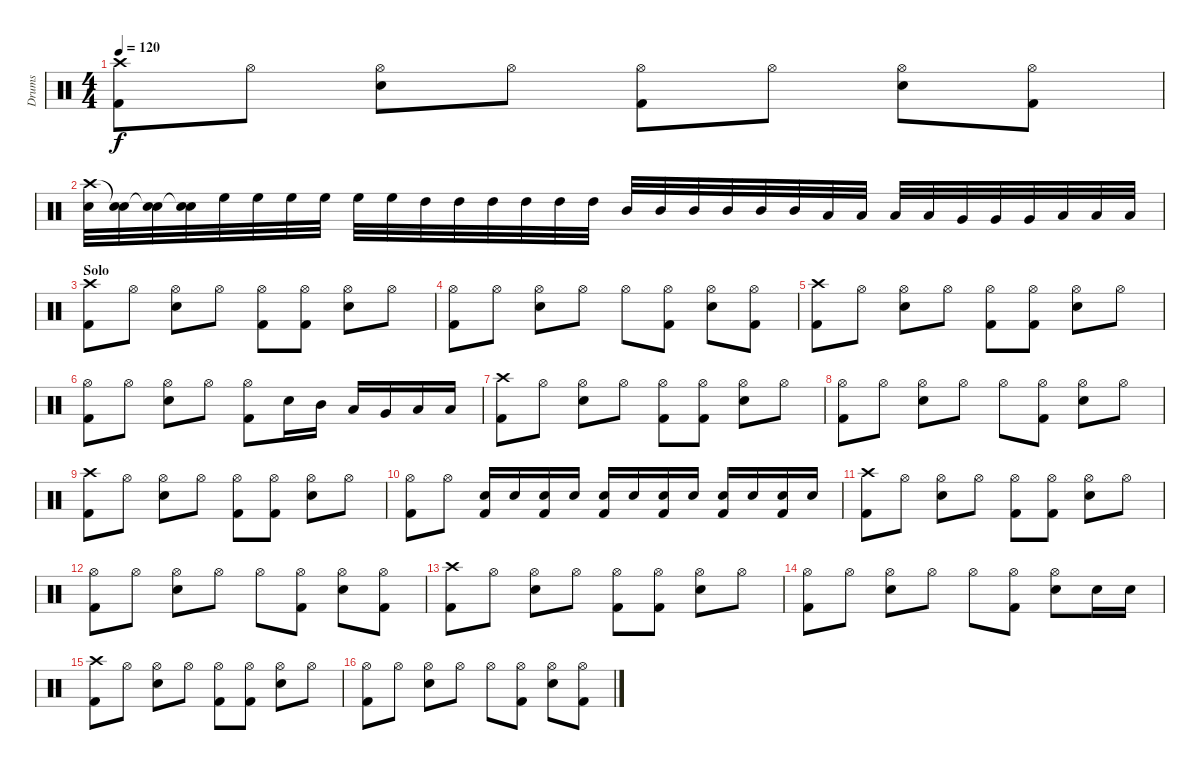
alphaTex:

\track ("Drums" "Drums") {instrument percussion}
\staff {score}
\articulation defaults
\ts (4 4)
\tempo 120
\clef neutral
\ks c
("Crash high (hit)" "Kick (hit) 2").8{dy f} "Hi-Hat (open)".8 ("Hi-Hat (open)" "Snare (hit) 2").8 "Hi-Hat (open)".8 ("Hi-Hat (open)" "Kick (hit) 2").8 "Hi-Hat (open)".8 ("Hi-Hat (open)" "Snare (hit) 2").8 ("Hi-Hat (open)" "Kick (hit) 2").8 |
("Crash high (hit)" "Snare (hit) 2").32 ("Snare (hit)"{t} "Snare (hit) 2").32 ("Snare (hit)"{t} "Snare (hit) 2").32 ("Snare (hit)"{t} "Snare (hit) 2").32 "High Floor Tom (hit)".32 "High Floor Tom (hit)".32 "High Floor Tom (hit)".32 "High Floor Tom (hit)".32 "High Floor Tom (hit)".32 "High Floor Tom (hit)".32 "High Tom (hit)".32 "High Tom (hit)".32 "High Tom (hit)".32 "High Tom (hit)".32 "High Tom (hit)".32 "High Tom (hit)".32 "Mid Tom (hit)".32 "Mid Tom (hit)".32 "Mid Tom (hit)".32 "Mid Tom (hit)".32 "Mid Tom (hit)".32 "Mid Tom (hit)".32 "Low Tom (hit)".32 "Low Tom (hit)".32 "Low Tom (hit)".32 "Low Tom (hit)".32 "Very Low Tom (hit)".32 "Very Low Tom (hit)".32 "Very Low Tom (hit)".32 "Low Floor Tom (hit)".32 "Low Floor Tom (hit)".32 "Low Floor Tom (hit)".32 |
\section ("" "Solo")
("Crash high (hit)" "Kick (hit) 2").8 "Hi-Hat (open)".8 ("Hi-Hat (open)" "Snare (hit) 2").8 "Hi-Hat (open)".8 ("Hi-Hat (open)" "Kick (hit) 2").8 ("Hi-Hat (open)" "Kick (hit) 2").8 ("Hi-Hat (open)" "Snare (hit) 2").8 "Hi-Hat (open)".8 |
("Hi-Hat (open)" "Kick (hit) 2").8 "Hi-Hat (open)".8 ("Hi-Hat (open)" "Snare (hit) 2").8 "Hi-Hat (open)".8 "Hi-Hat (open)".8 ("Hi-Hat (open)" "Kick (hit) 2").8 ("Hi-Hat (open)" "Snare (hit) 2").8 ("Hi-Hat (open)" "Kick (hit) 2").8 |
("Crash high (hit)" "Kick (hit) 2").8 "Hi-Hat (open)".8 ("Hi-Hat (open)" "Snare (hit) 2").8 "Hi-Hat (open)".8 ("Hi-Hat (open)" "Kick (hit) 2").8 ("Hi-Hat (open)" "Kick (hit) 2").8 ("Hi-Hat (open)" "Snare (hit) 2").8 "Hi-Hat (open)".8 |
("Hi-Hat (open)" "Kick (hit) 2").8 "Hi-Hat (open)".8 ("Hi-Hat (open)" "Snare (hit) 2").8 "Hi-Hat (open)".8 ("Hi-Hat (open)" "Kick (hit) 2").8 "Snare (hit) 2".16 "Mid Tom (hit)".16 "Low Tom (hit)".16 "Very Low Tom (hit)".16 "Low Floor Tom (hit)".16 "Low Floor Tom (hit)".16 |
("Crash high (hit)" "Kick (hit) 2").8 "Hi-Hat (open)".8 ("Hi-Hat (open)" "Snare (hit) 2").8 "Hi-Hat (open)".8 ("Hi-Hat (open)" "Kick (hit) 2").8 ("Hi-Hat (open)" "Kick (hit) 2").8 ("Hi-Hat (open)" "Snare (hit) 2").8 "Hi-Hat (open)".8 |
("Hi-Hat (open)" "Kick (hit) 2").8 "Hi-Hat (open)".8 ("Hi-Hat (open)" "Snare (hit) 2").8 "Hi-Hat (open)".8 "Hi-Hat (open)".8 ("Hi-Hat (open)" "Kick (hit) 2").8 ("Hi-Hat (open)" "Snare (hit) 2").8 "Hi-Hat (open)".8 |
("Crash high (hit)" "Kick (hit) 2").8 "Hi-Hat (open)".8 ("Hi-Hat (open)" "Snare (hit) 2").8 "Hi-Hat (open)".8 ("Hi-Hat (open)" "Kick (hit) 2").8 ("Hi-Hat (open)" "Kick (hit) 2").8 ("Hi-Hat (open)" "Snare (hit) 2").8 "Hi-Hat (open)".8 |
("Hi-Hat (open)" "Kick (hit) 2").8 "Hi-Hat (open)".8 ("Snare (hit) 2" "Kick (hit) 2").16 "Snare (hit) 2".16 ("Snare (hit) 2" "Kick (hit) 2").16 "Snare (hit) 2".16 ("Snare (hit) 2" "Kick (hit) 2").16 "Snare (hit) 2".16 ("Snare (hit) 2" "Kick (hit) 2").16 "Snare (hit) 2".16 ("Snare (hit) 2" "Kick (hit) 2").16 "Snare (hit) 2".16 ("Snare (hit) 2" "Kick (hit) 2").16 "Snare (hit) 2".16 |
("Crash high (hit)" "Kick (hit) 2").8 "Hi-Hat (open)".8 ("Hi-Hat (open)" "Snare (hit) 2").8 "Hi-Hat (open)".8 ("Hi-Hat (open)" "Kick (hit) 2").8 ("Hi-Hat (open)" "Kick (hit) 2").8 ("Hi-Hat (open)" "Snare (hit) 2").8 "Hi-Hat (open)".8 |
("Hi-Hat (open)" "Kick (hit) 2").8 "Hi-Hat (open)".8 ("Hi-Hat (open)" "Snare (hit) 2").8 "Hi-Hat (open)".8 "Hi-Hat (open)".8 ("Hi-Hat (open)" "Kick (hit) 2").8 ("Hi-Hat (open)" "Snare (hit) 2").8 ("Hi-Hat (open)" "Kick (hit) 2").8 |
("Crash high (hit)" "Kick (hit) 2").8 "Hi-Hat (open)".8 ("Hi-Hat (open)" "Snare (hit) 2").8 "Hi-Hat (open)".8 ("Hi-Hat (open)" "Kick (hit) 2").8 ("Hi-Hat (open)" "Kick (hit) 2").8 ("Hi-Hat (open)" "Snare (hit) 2").8 "Hi-Hat (open)".8 |
("Hi-Hat (open)" "Kick (hit) 2").8 "Hi-Hat (open)".8 ("Hi-Hat (open)" "Snare (hit) 2").8 "Hi-Hat (open)".8 "Hi-Hat (open)".8 ("Hi-Hat (open)" "Kick (hit) 2").8 ("Hi-Hat (open)" "Snare (hit) 2").8 "Snare (hit) 2".16 "Snare (hit) 2".16 |
("Crash high (hit)" "Kick (hit) 2").8 "Hi-Hat (open)".8 ("Hi-Hat (open)" "Snare (hit) 2").8 "Hi-Hat (open)".8 ("Hi-Hat (open)" "Kick (hit) 2").8 ("Hi-Hat (open)" "Kick (hit) 2").8 ("Hi-Hat (open)" "Snare (hit) 2").8 "Hi-Hat (open)".8 |
("Hi-Hat (open)" "Kick (hit) 2").8 "Hi-Hat (open)".8 ("Hi-Hat (open)" "Snare (hit) 2").8 "Hi-Hat (open)".8 "Hi-Hat (open)".8 ("Hi-Hat (open)" "Kick (hit) 2").8 ("Hi-Hat (open)" "Snare (hit) 2").8 ("Hi-Hat (open)" "Kick (hit) 2").8
